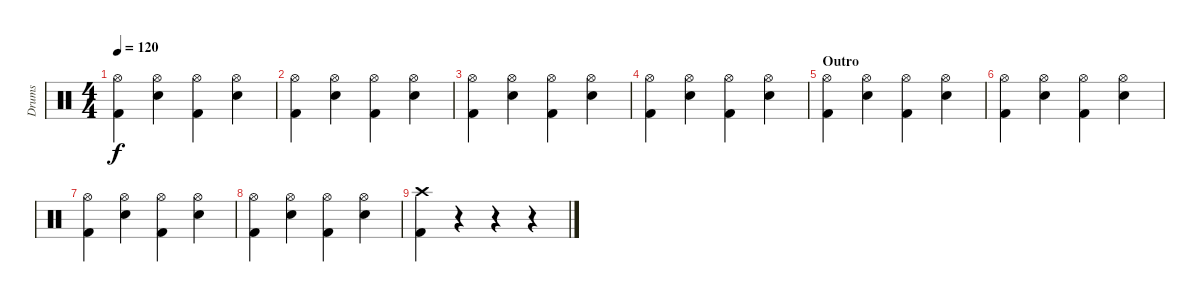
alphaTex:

\track ("Drums" "Drums") {instrument percussion}
\staff {score}
\articulation defaults
\ts (4 4)
\tempo 120
\clef neutral
\ks c
("Hi-Hat (open)" "Kick (hit) 2").4{dy f} ("Hi-Hat (open)" "Snare (hit) 2").4 ("Hi-Hat (open)" "Kick (hit) 2").4 ("Hi-Hat (open)" "Snare (hit) 2").4 |
("Hi-Hat (open)" "Kick (hit) 2").4 ("Hi-Hat (open)" "Snare (hit) 2").4 ("Hi-Hat (open)" "Kick (hit) 2").4 ("Hi-Hat (open)" "Snare (hit) 2").4 |
("Hi-Hat (open)" "Kick (hit) 2").4 ("Hi-Hat (open)" "Snare (hit) 2").4 ("Hi-Hat (open)" "Kick (hit) 2").4 ("Hi-Hat (open)" "Snare (hit) 2").4 |
("Hi-Hat (open)" "Kick (hit) 2").4 ("Hi-Hat (open)" "Snare (hit) 2").4 ("Hi-Hat (open)" "Kick (hit) 2").4 ("Hi-Hat (open)" "Snare (hit) 2").4 |
\section ("" "Outro")
("Hi-Hat (open)" "Kick (hit) 2").4 ("Hi-Hat (open)" "Snare (hit) 2").4 ("Hi-Hat (open)" "Kick (hit) 2").4 ("Hi-Hat (open)" "Snare (hit) 2").4 |
("Hi-Hat (open)" "Kick (hit) 2").4 ("Hi-Hat (open)" "Snare (hit) 2").4 ("Hi-Hat (open)" "Kick (hit) 2").4 ("Hi-Hat (open)" "Snare (hit) 2").4 |
("Hi-Hat (open)" "Kick (hit) 2").4 ("Hi-Hat (open)" "Snare (hit) 2").4 ("Hi-Hat (open)" "Kick (hit) 2").4 ("Hi-Hat (open)" "Snare (hit) 2").4 |
("Hi-Hat (open)" "Kick (hit) 2").4 ("Hi-Hat (open)" "Snare (hit) 2").4 ("Hi-Hat (open)" "Kick (hit) 2").4 ("Hi-Hat (open)" "Snare (hit) 2").4 |
("Crash high (hit)" "Kick (hit) 2").4 r.4 r.4 r.4
